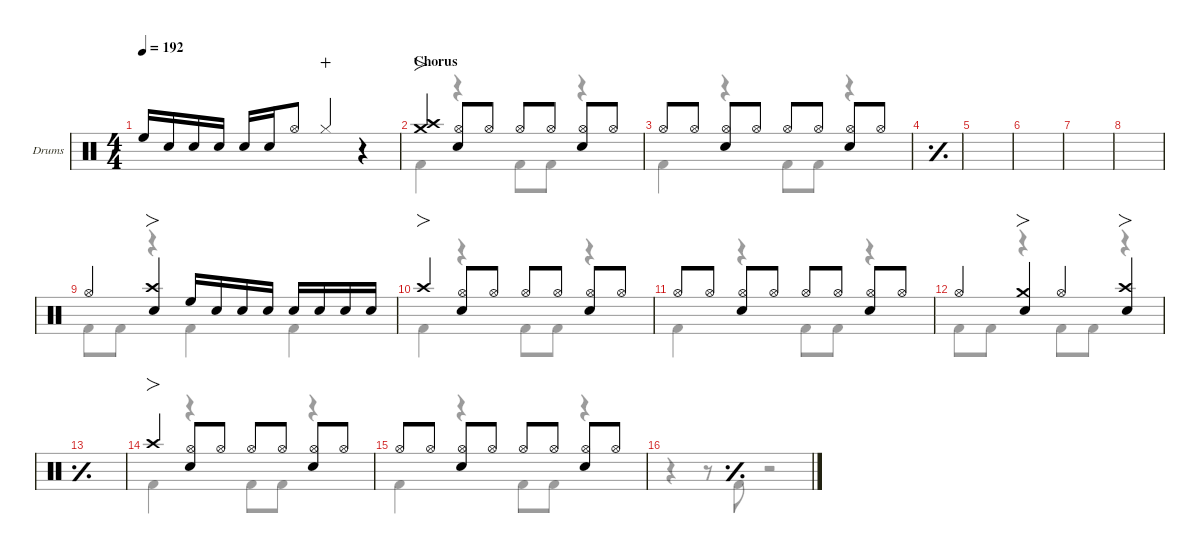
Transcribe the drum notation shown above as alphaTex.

\defaultSystemsLayout 4
\hideDynamics
\bracketExtendMode nobrackets
\firstSystemTrackNameOrientation horizontal
\track ("Drums" "Drums") {defaultSystemsLayout 4 instrument percussion}
\staff {score}
\articulation defaults
\voice
\ts (4 4)
\tempo 192
\clef neutral
\scale
0.488921
\ks c "High Floor Tom (hit)".16{dy mf beam Up} "Snare (hit) 2".16{beam Up} "Snare (hit) 2".16{dy f beam Up} "Snare (hit) 2".16{dy mf beam Up beam split} "Snare (hit) 2".16{dy f beam Up} "Snare (hit) 2".16{dy mf beam Up} "Hi-Hat (open)".8{dy f beam Up} "Hi-Hat (closed)".4{dy mp wahc beam Up}
r.4{beam Up} |
\section ("" "Chorus")
\scale
0.266618 ("Crash high (hit)" "Crash medium (hit)").4{fo dy f beam Up} ("Hi-Hat (open)" "Snare (hit) 2").8{beam Up} "Hi-Hat (open)".8{dy mf beam Up} "Hi-Hat (open)".8{dy f beam Up} "Hi-Hat (open)".8{dy mf beam Up} ("Hi-Hat (open)" "Snare (hit) 2").8{dy f beam Up} "Hi-Hat (open)".8{dy mf beam Up} |
\scale
0.244461 "Hi-Hat (open)".8{dy f beam Up} "Hi-Hat (open)".8{dy mf beam Up} ("Hi-Hat (open)" "Snare (hit) 2").8{dy f beam Up} "Hi-Hat (open)".8{dy mf beam Up} "Hi-Hat (open)".8{dy f beam Up} "Hi-Hat (open)".8{dy mf beam Up} ("Hi-Hat (open)" "Snare (hit) 2").8{dy f beam Up} "Hi-Hat (open)".8{dy mf beam Up} |
\simile simple
\scale
0.24446 |
\scale
0.244461 |
\scale
0.266618 |
\scale
0.244461 |
\scale
0.24446 |
\simile none
\scale
0.244461 "Hi-Hat (open)".4{dy f beam Up} ("Crash high (hit)" "Snare (hit) 2").4{fo beam Up} "High Floor Tom (hit)".16{beam Up} "Snare (hit) 2".16{dy mf beam Up} "Snare (hit) 2".16{dy f beam Up} "Snare (hit) 2".16{dy mf beam Up beam split} "Snare (hit) 2".16{dy f beam Up} "Snare (hit) 2".16{dy mf beam Up} "Snare (hit) 2".16{dy f beam Up} "Snare (hit) 2".16{dy mf beam Up} |
\scale
0.266618 "Crash high (hit)".4{fo dy f beam Up} ("Hi-Hat (open)" "Snare (hit) 2").8{beam Up} "Hi-Hat (open)".8{dy mf beam Up} "Hi-Hat (open)".8{dy f beam Up} "Hi-Hat (open)".8{dy mf beam Up} ("Hi-Hat (open)" "Snare (hit) 2").8{dy f beam Up} "Hi-Hat (open)".8{dy mf beam Up} |
\scale
0.244461 "Hi-Hat (open)".8{dy f beam Up} "Hi-Hat (open)".8{dy mf beam Up} ("Hi-Hat (open)" "Snare (hit) 2").8{dy f beam Up} "Hi-Hat (open)".8{dy mf beam Up} "Hi-Hat (open)".8{dy f beam Up} "Hi-Hat (open)".8{dy mf beam Up} ("Hi-Hat (open)" "Snare (hit) 2").8{dy f beam Up} "Hi-Hat (open)".8{dy mf beam Up} |
\scale
0.24446 "Hi-Hat (open)".4{dy f beam Up} ("Crash medium (hit)" "Snare (hit) 2").4{fo beam Up} "Hi-Hat (open)".4{beam Up} ("Crash high (hit)" "Snare (hit) 2").4{fo beam Up} |
\simile simple
\scale
0.244461 |
\simile none
\scale
0.266618 "Crash high (hit)".4{fo beam Up} ("Hi-Hat (open)" "Snare (hit) 2").8{beam Up} "Hi-Hat (open)".8{dy mf beam Up} "Hi-Hat (open)".8{dy f beam Up} "Hi-Hat (open)".8{dy mf beam Up} ("Hi-Hat (open)" "Snare (hit) 2").8{dy f beam Up} "Hi-Hat (open)".8{dy mf beam Up} |
\scale
0.244461 "Hi-Hat (open)".8{dy f beam Up} "Hi-Hat (open)".8{dy mf beam Up} ("Hi-Hat (open)" "Snare (hit) 2").8{dy f beam Up} "Hi-Hat (open)".8{dy mf beam Up} "Hi-Hat (open)".8{dy f beam Up} "Hi-Hat (open)".8{dy mf beam Up} ("Hi-Hat (open)" "Snare (hit) 2").8{dy f beam Up} "Hi-Hat (open)".8{dy mf beam Up} |
\simile simple
\scale
0.24446
\voice
\clef neutral
\ottava regular
\simile none
\scale
0.488921
\ks c
r.4{dy f beam Down} r.8{beam Down} "Kick (hit) 2".8{beam Down} r.2{beam Down} |
\scale
0.266618 "Kick (hit) 2".4{beam Down} r.4{beam Down} "Kick (hit) 2".8{beam Down} "Kick (hit) 2".8{beam Down} r.4{beam Down} |
\scale
0.244461 "Kick (hit) 2".4{beam Down} r.4{beam Down} "Kick (hit) 2".8{beam Down} "Kick (hit) 2".8{beam Down} r.4{beam Down} |
\simile simple
\scale
0.24446 |
\scale
0.244461 |
\scale
0.266618 |
\scale
0.244461 |
\scale
0.24446 |
\simile none
\scale
0.244461 "Kick (hit) 2".8{beam Down} "Kick (hit) 2".8{beam Down} r.4{beam Down} "Kick (hit) 2".4{beam Down} "Kick (hit) 2".4{beam Down} |
\scale
0.266618 "Kick (hit) 2".4{beam Down} r.4{beam Down} "Kick (hit) 2".8{beam Down} "Kick (hit) 2".8{beam Down} r.4{beam Down} |
\scale
0.244461 "Kick (hit) 2".4{beam Down} r.4{beam Down} "Kick (hit) 2".8{beam Down} "Kick (hit) 2".8{beam Down} r.4{beam Down} |
\scale
0.24446 "Kick (hit) 2".8{beam Down} "Kick (hit) 2".8{beam Down} r.4{beam Down} "Kick (hit) 2".8{beam Down} "Kick (hit) 2".8{beam Down} r.4{beam Down} |
\simile simple
\scale
0.244461 |
\simile none
\scale
0.266618 "Kick (hit) 2".4{beam Down} r.4{beam Down} "Kick (hit) 2".8{beam Down} "Kick (hit) 2".8{beam Down} r.4{beam Down} |
\scale
0.244461 "Kick (hit) 2".4{beam Down} r.4{beam Down} "Kick (hit) 2".8{beam Down} "Kick (hit) 2".8{beam Down} r.4{beam Down} |
\simile simple
\scale
0.24446
